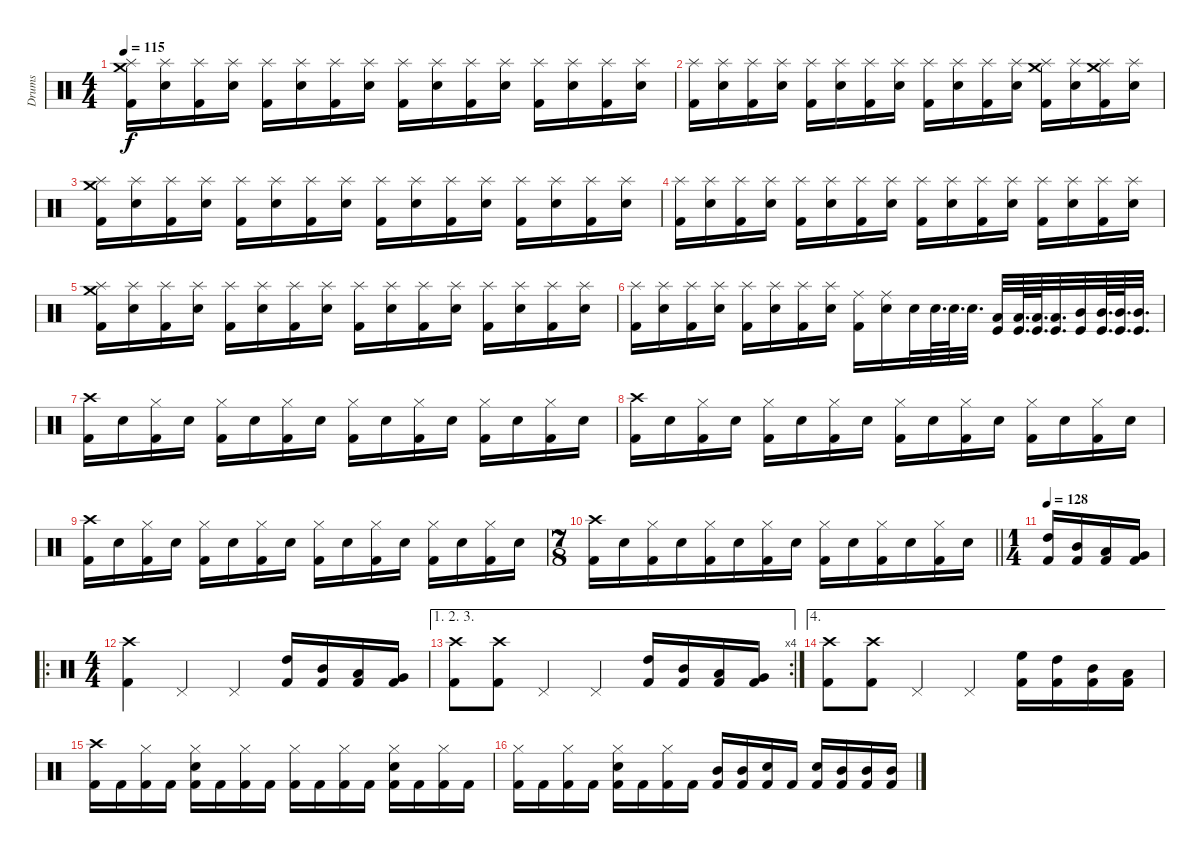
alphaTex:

\track ("Drums" "Drums") {instrument percussion}
\staff {score}
\articulation defaults
\ts (4 4)
\tempo 115
\clef neutral
\ks c
("Splash (hit)" "Crash medium (hit)" "Kick (hit) 2").16{dy f} ("Splash (hit)" "Electric Snare (hit)").16 ("Splash (hit)" "Kick (hit) 2").16 ("Splash (hit)" "Electric Snare (hit)").16 ("Splash (hit)" "Kick (hit) 2").16 ("Splash (hit)" "Electric Snare (hit)").16 ("Splash (hit)" "Kick (hit) 2").16 ("Splash (hit)" "Electric Snare (hit)").16 ("Splash (hit)" "Kick (hit) 2").16 ("Splash (hit)" "Electric Snare (hit)").16 ("Splash (hit)" "Kick (hit) 2").16 ("Splash (hit)" "Electric Snare (hit)").16 ("Splash (hit)" "Kick (hit) 2").16 ("Splash (hit)" "Electric Snare (hit)").16 ("Splash (hit)" "Kick (hit) 2").16 ("Splash (hit)" "Electric Snare (hit)").16 |
("Splash (hit)" "Kick (hit) 2").16 ("Splash (hit)" "Electric Snare (hit)").16 ("Splash (hit)" "Kick (hit) 2").16 ("Splash (hit)" "Electric Snare (hit)").16 ("Splash (hit)" "Kick (hit) 2").16 ("Splash (hit)" "Electric Snare (hit)").16 ("Splash (hit)" "Kick (hit) 2").16 ("Splash (hit)" "Electric Snare (hit)").16 ("Splash (hit)" "Kick (hit) 2").16 ("Splash (hit)" "Electric Snare (hit)").16 ("Splash (hit)" "Kick (hit) 2").16 ("Splash (hit)" "Electric Snare (hit)").16 ("Splash (hit)" "Crash medium (hit)" "Kick (hit) 2").16 ("Splash (hit)" "Electric Snare (hit)").16 ("Splash (hit)" "Crash medium (hit)" "Kick (hit) 2").16 ("Splash (hit)" "Electric Snare (hit)").16 |
("Splash (hit)" "Crash medium (hit)" "Kick (hit) 2").16 ("Splash (hit)" "Electric Snare (hit)").16 ("Splash (hit)" "Kick (hit) 2").16 ("Splash (hit)" "Electric Snare (hit)").16 ("Splash (hit)" "Kick (hit) 2").16 ("Splash (hit)" "Electric Snare (hit)").16 ("Splash (hit)" "Kick (hit) 2").16 ("Splash (hit)" "Electric Snare (hit)").16 ("Splash (hit)" "Kick (hit) 2").16 ("Splash (hit)" "Electric Snare (hit)").16 ("Splash (hit)" "Kick (hit) 2").16 ("Splash (hit)" "Electric Snare (hit)").16 ("Splash (hit)" "Kick (hit) 2").16 ("Splash (hit)" "Electric Snare (hit)").16 ("Splash (hit)" "Kick (hit) 2").16 ("Splash (hit)" "Electric Snare (hit)").16 |
("Splash (hit)" "Kick (hit) 2").16 ("Splash (hit)" "Electric Snare (hit)").16 ("Splash (hit)" "Kick (hit) 2").16 ("Splash (hit)" "Electric Snare (hit)").16 ("Splash (hit)" "Kick (hit) 2").16 ("Splash (hit)" "Electric Snare (hit)").16 ("Splash (hit)" "Kick (hit) 2").16 ("Splash (hit)" "Electric Snare (hit)").16 ("Splash (hit)" "Kick (hit) 2").16 ("Splash (hit)" "Electric Snare (hit)").16 ("Splash (hit)" "Kick (hit) 2").16 ("Splash (hit)" "Electric Snare (hit)").16 ("Splash (hit)" "Kick (hit) 2").16 ("Splash (hit)" "Electric Snare (hit)").16 ("Splash (hit)" "Kick (hit) 2").16 ("Splash (hit)" "Electric Snare (hit)").16 |
("Splash (hit)" "Crash medium (hit)" "Kick (hit) 2").16 ("Splash (hit)" "Electric Snare (hit)").16 ("Splash (hit)" "Kick (hit) 2").16 ("Splash (hit)" "Electric Snare (hit)").16 ("Splash (hit)" "Kick (hit) 2").16 ("Splash (hit)" "Electric Snare (hit)").16 ("Splash (hit)" "Kick (hit) 2").16 ("Splash (hit)" "Electric Snare (hit)").16 ("Splash (hit)" "Kick (hit) 2").16 ("Splash (hit)" "Electric Snare (hit)").16 ("Splash (hit)" "Kick (hit) 2").16 ("Splash (hit)" "Electric Snare (hit)").16 ("Splash (hit)" "Kick (hit) 2").16 ("Splash (hit)" "Electric Snare (hit)").16 ("Splash (hit)" "Kick (hit) 2").16 ("Splash (hit)" "Electric Snare (hit)").16 |
("Splash (hit)" "Kick (hit) 2").16 ("Splash (hit)" "Electric Snare (hit)").16 ("Splash (hit)" "Kick (hit) 2").16 ("Splash (hit)" "Electric Snare (hit)").16 ("Splash (hit)" "Kick (hit) 2").16 ("Splash (hit)" "Electric Snare (hit)").16 ("Splash (hit)" "Kick (hit) 2").16 ("Splash (hit)" "Electric Snare (hit)").16 ("Ride (middle)" "Kick (hit) 2").16 ("Ride (middle)" "Electric Snare (hit)").16 "Electric Snare (hit)".32 "Electric Snare (hit)".64{d} "Electric Snare (hit)".64{d} "Electric Snare (hit)".32{d} ("Low Tom (hit)" "Kick (hit)").32 ("Low Tom (hit)" "Kick (hit)").64{d} ("Low Tom (hit)" "Kick (hit)").64{d} ("Low Tom (hit)" "Kick (hit)").32{d} ("Mid Tom (hit)" "Kick (hit)").32 ("Mid Tom (hit)" "Kick (hit)").64{d} ("Mid Tom (hit)" "Kick (hit)").64{d} ("Mid Tom (hit)" "Kick (hit)").32{d} |
("Crash high (hit)" "Kick (hit) 2").16 "Electric Snare (hit)".16 ("Hi-Hat (closed)" "Kick (hit) 2").16 "Electric Snare (hit)".16 ("Hi-Hat (closed)" "Kick (hit) 2").16 "Electric Snare (hit)".16 ("Hi-Hat (closed)" "Kick (hit) 2").16 "Electric Snare (hit)".16 ("Hi-Hat (closed)" "Kick (hit) 2").16 "Electric Snare (hit)".16 ("Hi-Hat (closed)" "Kick (hit) 2").16 "Electric Snare (hit)".16 ("Hi-Hat (closed)" "Kick (hit) 2").16 "Electric Snare (hit)".16 ("Hi-Hat (closed)" "Kick (hit) 2").16 "Electric Snare (hit)".16 |
("Crash high (hit)" "Kick (hit) 2").16 "Electric Snare (hit)".16 ("Hi-Hat (closed)" "Kick (hit) 2").16 "Electric Snare (hit)".16 ("Hi-Hat (closed)" "Kick (hit) 2").16 "Electric Snare (hit)".16 ("Hi-Hat (closed)" "Kick (hit) 2").16 "Electric Snare (hit)".16 ("Hi-Hat (closed)" "Kick (hit) 2").16 "Electric Snare (hit)".16 ("Hi-Hat (closed)" "Kick (hit) 2").16 "Electric Snare (hit)".16 ("Hi-Hat (closed)" "Kick (hit) 2").16 "Electric Snare (hit)".16 ("Hi-Hat (closed)" "Kick (hit) 2").16 "Electric Snare (hit)".16 |
("Crash high (hit)" "Kick (hit) 2").16 "Electric Snare (hit)".16 ("Hi-Hat (closed)" "Kick (hit) 2").16 "Electric Snare (hit)".16 ("Hi-Hat (closed)" "Kick (hit) 2").16 "Electric Snare (hit)".16 ("Hi-Hat (closed)" "Kick (hit) 2").16 "Electric Snare (hit)".16 ("Hi-Hat (closed)" "Kick (hit) 2").16 "Electric Snare (hit)".16 ("Hi-Hat (closed)" "Kick (hit) 2").16 "Electric Snare (hit)".16 ("Hi-Hat (closed)" "Kick (hit) 2").16 "Electric Snare (hit)".16 ("Hi-Hat (closed)" "Kick (hit) 2").16 "Electric Snare (hit)".16 |
\ts (7 8)
\barLineRight lightlight
("Crash high (hit)" "Kick (hit) 2").16 "Electric Snare (hit)".16 ("Hi-Hat (closed)" "Kick (hit) 2").16 "Electric Snare (hit)".16 ("Hi-Hat (closed)" "Kick (hit) 2").16 "Electric Snare (hit)".16 ("Hi-Hat (closed)" "Kick (hit) 2").16 "Electric Snare (hit)".16 ("Hi-Hat (closed)" "Kick (hit) 2").16 "Electric Snare (hit)".16 ("Hi-Hat (closed)" "Kick (hit) 2").16 "Electric Snare (hit)".16 ("Hi-Hat (closed)" "Kick (hit) 2").16 "Electric Snare (hit)".16 |
\ts (1 4)
\tempo 128
("High Tom (hit)" "Kick (hit) 2").16 ("Mid Tom (hit)" "Kick (hit) 2").16 ("Low Tom (hit)" "Kick (hit) 2").16 ("Very Low Tom (hit)" "Kick (hit) 2").16 |
\ro
\ts (4 4)
("Crash high (hit)" "Kick (hit) 2").4 "Pedal Hi-Hat (hit)".4 "Pedal Hi-Hat (hit)".4 ("High Tom (hit)" "Kick (hit) 2").16 ("Mid Tom (hit)" "Kick (hit) 2").16 ("Low Tom (hit)" "Kick (hit) 2").16 ("Very Low Tom (hit)" "Kick (hit) 2").16 |
\ae (1 2 3)
\rc 4
("Crash high (hit)" "Kick (hit) 2").8 ("Crash high (hit)" "Kick (hit) 2").8 "Pedal Hi-Hat (hit)".4 "Pedal Hi-Hat (hit)".4 ("High Tom (hit)" "Kick (hit) 2").16 ("Mid Tom (hit)" "Kick (hit) 2").16 ("Low Tom (hit)" "Kick (hit) 2").16 ("Very Low Tom (hit)" "Kick (hit) 2").16 |
\ae 4
("Crash high (hit)" "Kick (hit) 2").8 ("Crash high (hit)" "Kick (hit) 2").8 "Pedal Hi-Hat (hit)".4 "Pedal Hi-Hat (hit)".4 ("High Floor Tom (hit)" "Kick (hit) 2").16 ("High Tom (hit)" "Kick (hit) 2").16 ("Mid Tom (hit)" "Kick (hit) 2").16 ("Low Tom (hit)" "Kick (hit) 2").16 |
("Crash high (hit)" "Kick (hit) 2").16 "Kick (hit) 2".16 ("Hi-Hat (closed)" "Kick (hit) 2").16 "Kick (hit) 2".16 ("Hi-Hat (closed)" "Electric Snare (hit)" "Kick (hit) 2").16 "Kick (hit) 2".16 ("Hi-Hat (closed)" "Kick (hit) 2").16 "Kick (hit) 2".16 ("Hi-Hat (closed)" "Kick (hit) 2").16 "Kick (hit) 2".16 ("Hi-Hat (closed)" "Kick (hit) 2").16 "Kick (hit) 2".16 ("Hi-Hat (closed)" "Electric Snare (hit)" "Kick (hit) 2").16 "Kick (hit) 2".16 ("Hi-Hat (closed)" "Kick (hit) 2").16 "Kick (hit) 2".16 |
("Hi-Hat (closed)" "Kick (hit) 2").16 "Kick (hit) 2".16 ("Hi-Hat (closed)" "Kick (hit) 2").16 "Kick (hit) 2".16 ("Hi-Hat (closed)" "Electric Snare (hit)" "Kick (hit) 2").16 "Kick (hit) 2".16 ("Hi-Hat (closed)" "Kick (hit) 2").16 "Kick (hit) 2".16 ("Mid Tom (hit)" "Kick (hit) 2").16 ("Mid Tom (hit)" "Kick (hit) 2").16 ("Electric Snare (hit)" "Kick (hit) 2").16 "Kick (hit) 2".16 ("Electric Snare (hit)" "Kick (hit) 2").16 ("Mid Tom (hit)" "Kick (hit) 2").16 ("Mid Tom (hit)" "Kick (hit) 2").16 ("Mid Tom (hit)" "Kick (hit) 2").16
